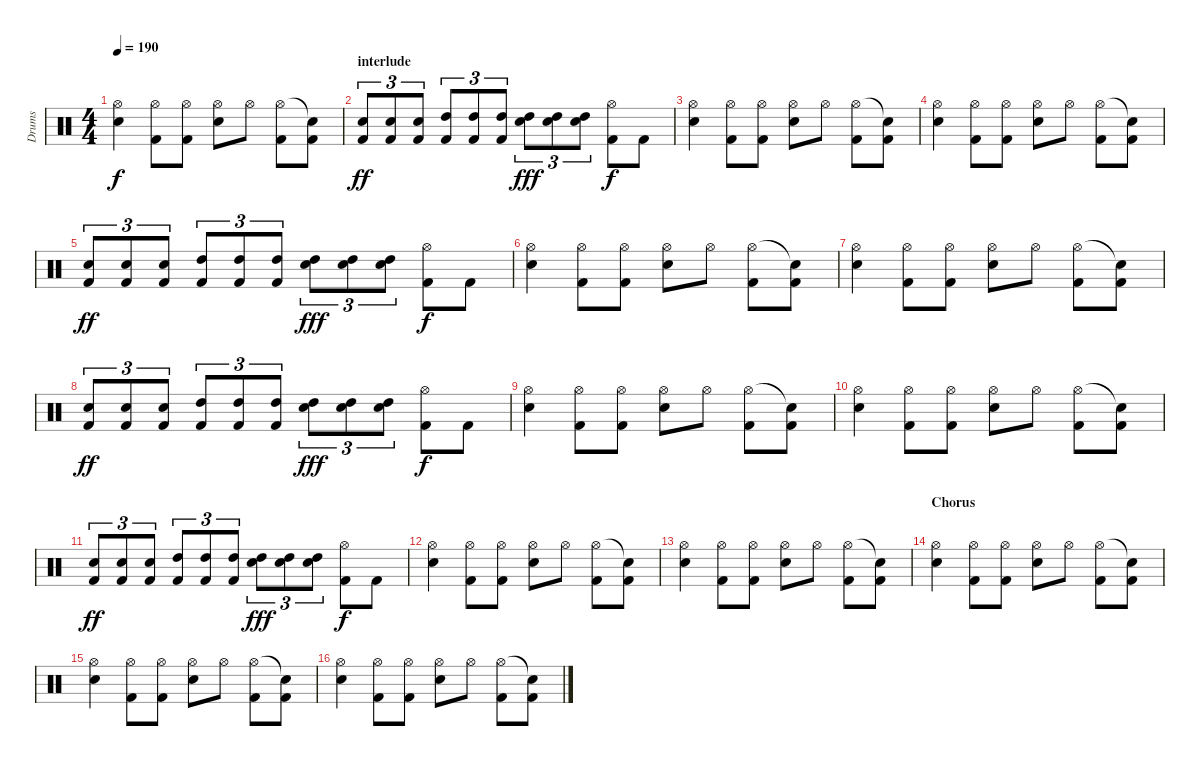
\track ("Drums" "Drums") {instrument percussion}
\staff {score}
\articulation defaults
\ts (4 4)
\tempo 190
\clef neutral
\ks c
("Electric Snare (hit)" "Hi-Hat (open)").4{dy f} ("Hi-Hat (open)" "Kick (hit) 2").8 ("Hi-Hat (open)" "Kick (hit) 2").8 ("Hi-Hat (open)" "Electric Snare (hit)").8 "Hi-Hat (open)".8 ("Kick (hit) 2" "Hi-Hat (open)").8 ("Kick (hit) 2" "Snare (hit)"{t}).8 |
\section ("" "interlude")
("Electric Snare (hit)" "Kick (hit) 2").8{tu (3 2) dy ff} ("Electric Snare (hit)" "Kick (hit) 2").8{tu (3 2)} ("Electric Snare (hit)" "Kick (hit) 2").8{tu (3 2)} ("High Tom (hit)" "Kick (hit) 2").8{tu (3 2)} ("High Tom (hit)" "Kick (hit) 2").8{tu (3 2)} ("High Tom (hit)" "Kick (hit) 2").8{tu (3 2)} ("High Tom (hit)" "Electric Snare (hit)").8{tu (3 2) dy fff} ("High Tom (hit)" "Electric Snare (hit)").8{tu (3 2)} ("High Tom (hit)" "Electric Snare (hit)").8{tu (3 2)} ("Kick (hit) 2" "Hi-Hat (open)").8{dy f} "Kick (hit) 2".8 |
("Electric Snare (hit)" "Hi-Hat (open)").4 ("Hi-Hat (open)" "Kick (hit) 2").8 ("Hi-Hat (open)" "Kick (hit) 2").8 ("Hi-Hat (open)" "Electric Snare (hit)").8 "Hi-Hat (open)".8 ("Kick (hit) 2" "Hi-Hat (open)").8 ("Kick (hit) 2" "Snare (hit)"{t}).8 |
("Electric Snare (hit)" "Hi-Hat (open)").4 ("Hi-Hat (open)" "Kick (hit) 2").8 ("Hi-Hat (open)" "Kick (hit) 2").8 ("Hi-Hat (open)" "Electric Snare (hit)").8 "Hi-Hat (open)".8 ("Kick (hit) 2" "Hi-Hat (open)").8 ("Kick (hit) 2" "Snare (hit)"{t}).8 |
("Electric Snare (hit)" "Kick (hit) 2").8{tu (3 2) dy ff} ("Electric Snare (hit)" "Kick (hit) 2").8{tu (3 2)} ("Electric Snare (hit)" "Kick (hit) 2").8{tu (3 2)} ("High Tom (hit)" "Kick (hit) 2").8{tu (3 2)} ("High Tom (hit)" "Kick (hit) 2").8{tu (3 2)} ("High Tom (hit)" "Kick (hit) 2").8{tu (3 2)} ("High Tom (hit)" "Electric Snare (hit)").8{tu (3 2) dy fff} ("High Tom (hit)" "Electric Snare (hit)").8{tu (3 2)} ("High Tom (hit)" "Electric Snare (hit)").8{tu (3 2)} ("Kick (hit) 2" "Hi-Hat (open)").8{dy f} "Kick (hit) 2".8 |
("Electric Snare (hit)" "Hi-Hat (open)").4 ("Hi-Hat (open)" "Kick (hit) 2").8 ("Hi-Hat (open)" "Kick (hit) 2").8 ("Hi-Hat (open)" "Electric Snare (hit)").8 "Hi-Hat (open)".8 ("Kick (hit) 2" "Hi-Hat (open)").8 ("Kick (hit) 2" "Snare (hit)"{t}).8 |
("Electric Snare (hit)" "Hi-Hat (open)").4 ("Hi-Hat (open)" "Kick (hit) 2").8 ("Hi-Hat (open)" "Kick (hit) 2").8 ("Hi-Hat (open)" "Electric Snare (hit)").8 "Hi-Hat (open)".8 ("Kick (hit) 2" "Hi-Hat (open)").8 ("Kick (hit) 2" "Snare (hit)"{t}).8 |
("Electric Snare (hit)" "Kick (hit) 2").8{tu (3 2) dy ff} ("Electric Snare (hit)" "Kick (hit) 2").8{tu (3 2)} ("Electric Snare (hit)" "Kick (hit) 2").8{tu (3 2)} ("High Tom (hit)" "Kick (hit) 2").8{tu (3 2)} ("High Tom (hit)" "Kick (hit) 2").8{tu (3 2)} ("High Tom (hit)" "Kick (hit) 2").8{tu (3 2)} ("High Tom (hit)" "Electric Snare (hit)").8{tu (3 2) dy fff} ("High Tom (hit)" "Electric Snare (hit)").8{tu (3 2)} ("High Tom (hit)" "Electric Snare (hit)").8{tu (3 2)} ("Kick (hit) 2" "Hi-Hat (open)").8{dy f} "Kick (hit) 2".8 |
("Electric Snare (hit)" "Hi-Hat (open)").4 ("Hi-Hat (open)" "Kick (hit) 2").8 ("Hi-Hat (open)" "Kick (hit) 2").8 ("Hi-Hat (open)" "Electric Snare (hit)").8 "Hi-Hat (open)".8 ("Kick (hit) 2" "Hi-Hat (open)").8 ("Kick (hit) 2" "Snare (hit)"{t}).8 |
("Electric Snare (hit)" "Hi-Hat (open)").4 ("Hi-Hat (open)" "Kick (hit) 2").8 ("Hi-Hat (open)" "Kick (hit) 2").8 ("Hi-Hat (open)" "Electric Snare (hit)").8 "Hi-Hat (open)".8 ("Kick (hit) 2" "Hi-Hat (open)").8 ("Kick (hit) 2" "Snare (hit)"{t}).8 |
("Electric Snare (hit)" "Kick (hit) 2").8{tu (3 2) dy ff} ("Electric Snare (hit)" "Kick (hit) 2").8{tu (3 2)} ("Electric Snare (hit)" "Kick (hit) 2").8{tu (3 2)} ("High Tom (hit)" "Kick (hit) 2").8{tu (3 2)} ("High Tom (hit)" "Kick (hit) 2").8{tu (3 2)} ("High Tom (hit)" "Kick (hit) 2").8{tu (3 2)} ("High Tom (hit)" "Electric Snare (hit)").8{tu (3 2) dy fff} ("High Tom (hit)" "Electric Snare (hit)").8{tu (3 2)} ("High Tom (hit)" "Electric Snare (hit)").8{tu (3 2)} ("Kick (hit) 2" "Hi-Hat (open)").8{dy f} "Kick (hit) 2".8 |
("Electric Snare (hit)" "Hi-Hat (open)").4 ("Hi-Hat (open)" "Kick (hit) 2").8 ("Hi-Hat (open)" "Kick (hit) 2").8 ("Hi-Hat (open)" "Electric Snare (hit)").8 "Hi-Hat (open)".8 ("Kick (hit) 2" "Hi-Hat (open)").8 ("Kick (hit) 2" "Snare (hit)"{t}).8 |
("Electric Snare (hit)" "Hi-Hat (open)").4 ("Hi-Hat (open)" "Kick (hit) 2").8 ("Hi-Hat (open)" "Kick (hit) 2").8 ("Hi-Hat (open)" "Electric Snare (hit)").8 "Hi-Hat (open)".8 ("Kick (hit) 2" "Hi-Hat (open)").8 ("Kick (hit) 2" "Snare (hit)"{t}).8 |
\section ("" "Chorus")
("Electric Snare (hit)" "Hi-Hat (open)").4 ("Hi-Hat (open)" "Kick (hit) 2").8 ("Hi-Hat (open)" "Kick (hit) 2").8 ("Hi-Hat (open)" "Electric Snare (hit)").8 "Hi-Hat (open)".8 ("Kick (hit) 2" "Hi-Hat (open)").8 ("Kick (hit) 2" "Snare (hit)"{t}).8 |
("Electric Snare (hit)" "Hi-Hat (open)").4 ("Hi-Hat (open)" "Kick (hit) 2").8 ("Hi-Hat (open)" "Kick (hit) 2").8 ("Hi-Hat (open)" "Electric Snare (hit)").8 "Hi-Hat (open)".8 ("Kick (hit) 2" "Hi-Hat (open)").8 ("Kick (hit) 2" "Snare (hit)"{t}).8 |
("Electric Snare (hit)" "Hi-Hat (open)").4 ("Hi-Hat (open)" "Kick (hit) 2").8 ("Hi-Hat (open)" "Kick (hit) 2").8 ("Hi-Hat (open)" "Electric Snare (hit)").8 "Hi-Hat (open)".8 ("Kick (hit) 2" "Hi-Hat (open)").8 ("Kick (hit) 2" "Snare (hit)"{t}).8
